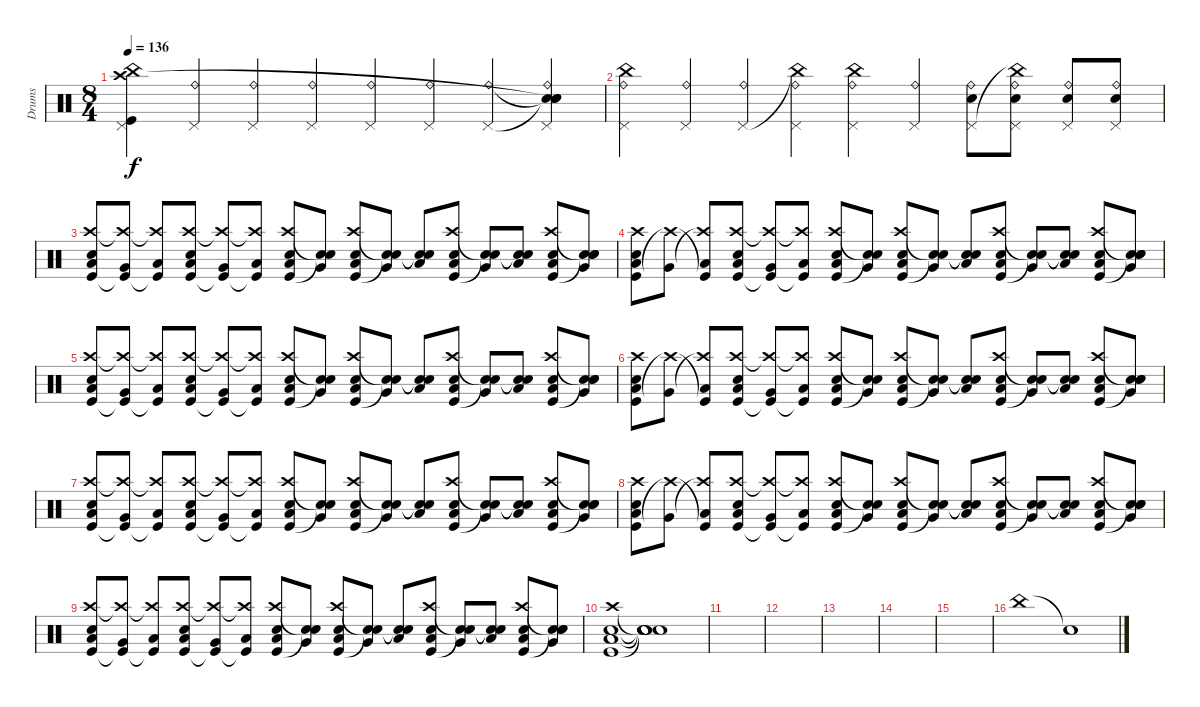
\track ("Drums" "Drums") {instrument percussion}
\staff {score}
\articulation defaults
\ts (8 4)
\tempo 136
\clef neutral
\ks c
("China (hit)" "Kick (hit)" "Crash high (hit)" "Pedal Hi-Hat (hit)").4{dy f} ("Pedal Hi-Hat (hit)" "Ride (bell)").4 ("Pedal Hi-Hat (hit)" "Ride (bell)").4 ("Pedal Hi-Hat (hit)" "Ride (bell)").4 ("Pedal Hi-Hat (hit)" "Ride (bell)").4 ("Pedal Hi-Hat (hit)" "Ride (bell)").4 ("Pedal Hi-Hat (hit)" "Ride (bell)").4 ("Snare (hit)"{t} "Snare (hit)"{t} "Snare (hit)"{t} "Pedal Hi-Hat (hit)" "Ride (bell)").4 |
("China (hit)" "Pedal Hi-Hat (hit)" "Ride (bell)").4 ("Pedal Hi-Hat (hit)" "Ride (bell)").4 ("Pedal Hi-Hat (hit)" "Ride (bell)").4 ("China (hit)"{t} "Pedal Hi-Hat (hit)" "Ride (bell)").4 ("China (hit)" "Pedal Hi-Hat (hit)" "Ride (bell)").4 ("Pedal Hi-Hat (hit)" "Ride (bell)").4 ("Pedal Hi-Hat (hit)" "Snare (hit) 2" "Ride (bell)").8 ("China (hit)"{t} "Pedal Hi-Hat (hit)" "Snare (hit) 2" "Ride (bell)").8 ("Pedal Hi-Hat (hit)" "Snare (hit) 2" "Ride (bell)").8 ("Pedal Hi-Hat (hit)" "Snare (hit) 2" "Ride (bell)").8 |
("Kick (hit)" "Crash high (hit)" "Low Tom (hit)" "Snare (hit) 2").8 ("Kick (hit)"{t} "Crash high (hit)"{t} "Very Low Tom (hit)").8 ("Kick (hit)"{t} "Crash high (hit)"{t} "Low Floor Tom (hit)").8 ("Kick (hit)" "Crash high (hit)" "Low Tom (hit)" "Snare (hit) 2").8 ("Kick (hit)"{t} "Crash high (hit)"{t} "Very Low Tom (hit)").8 ("Kick (hit)"{t} "Crash high (hit)"{t} "Low Floor Tom (hit)").8 ("Kick (hit)" "Crash high (hit)" "Low Tom (hit)" "Snare (hit) 2").8 ("Snare (hit)"{t} "Snare (hit)"{t} "Very Low Tom (hit)").8 ("Kick (hit)" "Crash high (hit)" "Low Tom (hit)" "Snare (hit) 2").8 ("Snare (hit)"{t} "Snare (hit)"{t} "Very Low Tom (hit)").8 ("Snare (hit)"{t} "Snare (hit)"{t} "Low Floor Tom (hit)").8 ("Kick (hit)" "Crash high (hit)" "Low Tom (hit)" "Snare (hit) 2").8 ("Snare (hit)"{t} "Snare (hit)"{t} "Very Low Tom (hit)").8 ("Snare (hit)"{t} "Snare (hit)"{t} "Low Floor Tom (hit)").8 ("Kick (hit)" "Crash high (hit)" "Low Tom (hit)" "Snare (hit) 2").8 ("Snare (hit)"{t} "Snare (hit)"{t} "Very Low Tom (hit)" "Snare (hit) 2").8 |
("Kick (hit)" "Crash high (hit)" "Low Tom (hit)" "Snare (hit) 2").8 ("Crash high (hit)"{t} "Very Low Tom (hit)").8 ("Kick (hit)"{t} "Crash high (hit)"{t} "Low Floor Tom (hit)").8 ("Kick (hit)" "Crash high (hit)" "Low Tom (hit)" "Snare (hit) 2").8 ("Kick (hit)"{t} "Crash high (hit)"{t} "Very Low Tom (hit)").8 ("Kick (hit)"{t} "Crash high (hit)"{t} "Low Floor Tom (hit)").8 ("Kick (hit)" "Crash high (hit)" "Low Tom (hit)" "Snare (hit) 2").8 ("Snare (hit)"{t} "Snare (hit)"{t} "Very Low Tom (hit)").8 ("Kick (hit)" "Crash high (hit)" "Low Tom (hit)" "Snare (hit) 2").8 ("Snare (hit)"{t} "Snare (hit)"{t} "Very Low Tom (hit)").8 ("Snare (hit)"{t} "Snare (hit)"{t} "Low Floor Tom (hit)").8 ("Kick (hit)" "Crash high (hit)" "Low Tom (hit)" "Snare (hit) 2").8 ("Snare (hit)"{t} "Snare (hit)"{t} "Very Low Tom (hit)").8 ("Snare (hit)"{t} "Snare (hit)"{t} "Low Floor Tom (hit)").8 ("Kick (hit)" "Crash high (hit)" "Low Tom (hit)" "Snare (hit) 2").8 ("Snare (hit)"{t} "Snare (hit)"{t} "Very Low Tom (hit)" "Snare (hit) 2").8 |
("Kick (hit)" "Crash high (hit)" "Low Tom (hit)" "Snare (hit) 2").8 ("Kick (hit)"{t} "Crash high (hit)"{t} "Very Low Tom (hit)").8 ("Kick (hit)"{t} "Crash high (hit)"{t} "Low Floor Tom (hit)").8 ("Kick (hit)" "Crash high (hit)" "Low Tom (hit)" "Snare (hit) 2").8 ("Kick (hit)"{t} "Crash high (hit)"{t} "Very Low Tom (hit)").8 ("Kick (hit)"{t} "Crash high (hit)"{t} "Low Floor Tom (hit)").8 ("Kick (hit)" "Crash high (hit)" "Low Tom (hit)" "Snare (hit) 2").8 ("Snare (hit)"{t} "Snare (hit)"{t} "Very Low Tom (hit)").8 ("Kick (hit)" "Crash high (hit)" "Low Tom (hit)" "Snare (hit) 2").8 ("Snare (hit)"{t} "Snare (hit)"{t} "Very Low Tom (hit)").8 ("Snare (hit)"{t} "Snare (hit)"{t} "Low Floor Tom (hit)").8 ("Kick (hit)" "Crash high (hit)" "Low Tom (hit)" "Snare (hit) 2").8 ("Snare (hit)"{t} "Snare (hit)"{t} "Very Low Tom (hit)").8 ("Snare (hit)"{t} "Snare (hit)"{t} "Low Floor Tom (hit)").8 ("Kick (hit)" "Crash high (hit)" "Low Tom (hit)" "Snare (hit) 2").8 ("Snare (hit)"{t} "Snare (hit)"{t} "Very Low Tom (hit)" "Snare (hit) 2").8 |
("Kick (hit)" "Crash high (hit)" "Low Tom (hit)" "Snare (hit) 2").8 ("Crash high (hit)"{t} "Very Low Tom (hit)").8 ("Kick (hit)"{t} "Crash high (hit)"{t} "Low Floor Tom (hit)").8 ("Kick (hit)" "Crash high (hit)" "Low Tom (hit)" "Snare (hit) 2").8 ("Kick (hit)"{t} "Crash high (hit)"{t} "Very Low Tom (hit)").8 ("Kick (hit)"{t} "Crash high (hit)"{t} "Low Floor Tom (hit)").8 ("Kick (hit)" "Crash high (hit)" "Low Tom (hit)" "Snare (hit) 2").8 ("Snare (hit)"{t} "Snare (hit)"{t} "Very Low Tom (hit)").8 ("Kick (hit)" "Crash high (hit)" "Low Tom (hit)" "Snare (hit) 2").8 ("Snare (hit)"{t} "Snare (hit)"{t} "Very Low Tom (hit)").8 ("Snare (hit)"{t} "Snare (hit)"{t} "Low Floor Tom (hit)").8 ("Kick (hit)" "Crash high (hit)" "Low Tom (hit)" "Snare (hit) 2").8 ("Snare (hit)"{t} "Snare (hit)"{t} "Very Low Tom (hit)").8 ("Snare (hit)"{t} "Snare (hit)"{t} "Low Floor Tom (hit)").8 ("Kick (hit)" "Crash high (hit)" "Low Tom (hit)" "Snare (hit) 2").8 ("Snare (hit)"{t} "Snare (hit)"{t} "Very Low Tom (hit)" "Snare (hit) 2").8 |
("Kick (hit)" "Crash high (hit)" "Low Tom (hit)" "Snare (hit) 2").8 ("Kick (hit)"{t} "Crash high (hit)"{t} "Very Low Tom (hit)").8 ("Kick (hit)"{t} "Crash high (hit)"{t} "Low Floor Tom (hit)").8 ("Kick (hit)" "Crash high (hit)" "Low Tom (hit)" "Snare (hit) 2").8 ("Kick (hit)"{t} "Crash high (hit)"{t} "Very Low Tom (hit)").8 ("Kick (hit)"{t} "Crash high (hit)"{t} "Low Floor Tom (hit)").8 ("Kick (hit)" "Crash high (hit)" "Low Tom (hit)" "Snare (hit) 2").8 ("Snare (hit)"{t} "Snare (hit)"{t} "Very Low Tom (hit)").8 ("Kick (hit)" "Crash high (hit)" "Low Tom (hit)" "Snare (hit) 2").8 ("Snare (hit)"{t} "Snare (hit)"{t} "Very Low Tom (hit)").8 ("Snare (hit)"{t} "Snare (hit)"{t} "Low Floor Tom (hit)").8 ("Kick (hit)" "Crash high (hit)" "Low Tom (hit)" "Snare (hit) 2").8 ("Snare (hit)"{t} "Snare (hit)"{t} "Very Low Tom (hit)").8 ("Snare (hit)"{t} "Snare (hit)"{t} "Low Floor Tom (hit)").8 ("Kick (hit)" "Crash high (hit)" "Low Tom (hit)" "Snare (hit) 2").8 ("Snare (hit)"{t} "Snare (hit)"{t} "Very Low Tom (hit)" "Snare (hit) 2").8 |
("Kick (hit)" "Crash high (hit)" "Low Tom (hit)" "Snare (hit) 2").8 ("Crash high (hit)"{t} "Very Low Tom (hit)").8 ("Kick (hit)"{t} "Crash high (hit)"{t} "Low Floor Tom (hit)").8 ("Kick (hit)" "Crash high (hit)" "Low Tom (hit)" "Snare (hit) 2").8 ("Kick (hit)"{t} "Crash high (hit)"{t} "Very Low Tom (hit)").8 ("Kick (hit)"{t} "Crash high (hit)"{t} "Low Floor Tom (hit)").8 ("Kick (hit)" "Crash high (hit)" "Low Tom (hit)" "Snare (hit) 2").8 ("Snare (hit)"{t} "Snare (hit)"{t} "Very Low Tom (hit)").8 ("Kick (hit)" "Crash high (hit)" "Low Tom (hit)" "Snare (hit) 2").8 ("Snare (hit)"{t} "Snare (hit)"{t} "Very Low Tom (hit)").8 ("Snare (hit)"{t} "Snare (hit)"{t} "Low Floor Tom (hit)").8 ("Kick (hit)" "Crash high (hit)" "Low Tom (hit)" "Snare (hit) 2").8 ("Snare (hit)"{t} "Snare (hit)"{t} "Very Low Tom (hit)").8 ("Snare (hit)"{t} "Snare (hit)"{t} "Low Floor Tom (hit)").8 ("Kick (hit)" "Crash high (hit)" "Low Tom (hit)" "Snare (hit) 2").8 ("Snare (hit)"{t} "Snare (hit)"{t} "Very Low Tom (hit)" "Snare (hit) 2").8 |
("Kick (hit)" "Crash high (hit)" "Low Tom (hit)" "Snare (hit) 2").8 ("Kick (hit)"{t} "Crash high (hit)"{t} "Very Low Tom (hit)").8 ("Kick (hit)"{t} "Crash high (hit)"{t} "Low Floor Tom (hit)").8 ("Kick (hit)" "Crash high (hit)" "Low Tom (hit)" "Snare (hit) 2").8 ("Kick (hit)"{t} "Crash high (hit)"{t} "Very Low Tom (hit)").8 ("Kick (hit)"{t} "Crash high (hit)"{t} "Low Floor Tom (hit)").8 ("Kick (hit)" "Crash high (hit)" "Low Tom (hit)" "Snare (hit) 2").8 ("Snare (hit)"{t} "Snare (hit)"{t} "Very Low Tom (hit)").8 ("Kick (hit)" "Crash high (hit)" "Low Tom (hit)" "Snare (hit) 2").8 ("Snare (hit)"{t} "Snare (hit)"{t} "Very Low Tom (hit)").8 ("Snare (hit)"{t} "Snare (hit)"{t} "Low Floor Tom (hit)").8 ("Kick (hit)" "Crash high (hit)" "Low Tom (hit)" "Snare (hit) 2").8 ("Snare (hit)"{t} "Snare (hit)"{t} "Very Low Tom (hit)").8 ("Snare (hit)"{t} "Snare (hit)"{t} "Low Floor Tom (hit)").8 ("Kick (hit)" "Crash high (hit)" "Low Tom (hit)" "Snare (hit) 2").8 ("Snare (hit)"{t} "Snare (hit)"{t} "Very Low Tom (hit)" "Snare (hit) 2").8 |
("Kick (hit)" "Crash high (hit)" "Low Tom (hit)" "Snare (hit) 2").1 ("Snare (hit)"{t} "Snare (hit)"{t} "Snare (hit)"{t} "Snare (hit)"{t}).1 |
|
|
|
|
|
"China (hit)".1 "Snare (hit)"{t}.1
